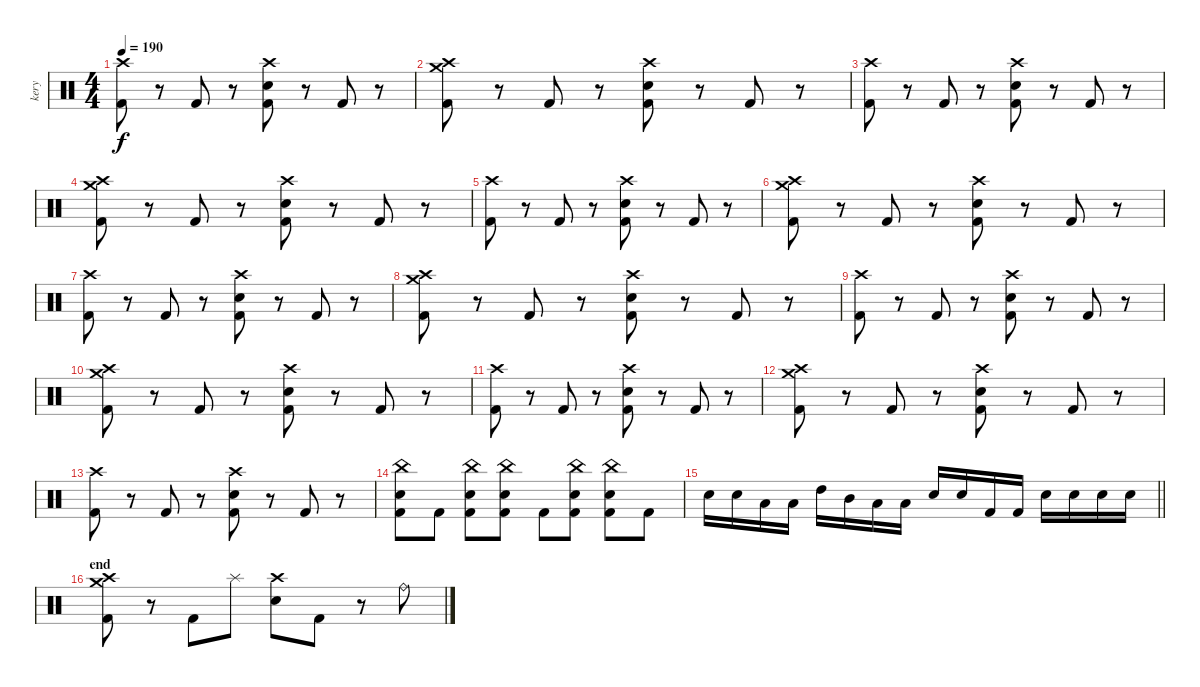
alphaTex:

\track ("kery" "kery") {instrument percussion}
\staff {score}
\articulation defaults
\ts (4 4)
\tempo 190
\clef neutral
\ks c
("Crash high (hit)" "Kick (hit) 2").8{dy f} r.8 "Kick (hit) 2".8 r.8 ("Crash high (hit)" "Electric Snare (hit)" "Kick (hit) 2").8 r.8 "Kick (hit) 2".8 r.8 |
("Crash high (hit)" "Crash medium (hit)" "Kick (hit) 2").8 r.8 "Kick (hit) 2".8 r.8 ("Crash high (hit)" "Electric Snare (hit)" "Kick (hit) 2").8 r.8 "Kick (hit) 2".8 r.8 |
("Crash high (hit)" "Kick (hit) 2").8 r.8 "Kick (hit) 2".8 r.8 ("Crash high (hit)" "Electric Snare (hit)" "Kick (hit) 2").8 r.8 "Kick (hit) 2".8 r.8 |
("Crash high (hit)" "Crash medium (hit)" "Kick (hit) 2").8 r.8 "Kick (hit) 2".8 r.8 ("Crash high (hit)" "Electric Snare (hit)" "Kick (hit) 2").8 r.8 "Kick (hit) 2".8 r.8 |
("Crash high (hit)" "Kick (hit) 2").8 r.8 "Kick (hit) 2".8 r.8 ("Crash high (hit)" "Electric Snare (hit)" "Kick (hit) 2").8 r.8 "Kick (hit) 2".8 r.8 |
("Crash high (hit)" "Crash medium (hit)" "Kick (hit) 2").8 r.8 "Kick (hit) 2".8 r.8 ("Crash high (hit)" "Electric Snare (hit)" "Kick (hit) 2").8 r.8 "Kick (hit) 2".8 r.8 |
("Crash high (hit)" "Kick (hit) 2").8 r.8 "Kick (hit) 2".8 r.8 ("Crash high (hit)" "Electric Snare (hit)" "Kick (hit) 2").8 r.8 "Kick (hit) 2".8 r.8 |
("Crash high (hit)" "Crash medium (hit)" "Kick (hit) 2").8 r.8 "Kick (hit) 2".8 r.8 ("Crash high (hit)" "Electric Snare (hit)" "Kick (hit) 2").8 r.8 "Kick (hit) 2".8 r.8 |
("Crash high (hit)" "Kick (hit) 2").8 r.8 "Kick (hit) 2".8 r.8 ("Crash high (hit)" "Electric Snare (hit)" "Kick (hit) 2").8 r.8 "Kick (hit) 2".8 r.8 |
("Crash high (hit)" "Crash medium (hit)" "Kick (hit) 2").8 r.8 "Kick (hit) 2".8 r.8 ("Crash high (hit)" "Electric Snare (hit)" "Kick (hit) 2").8 r.8 "Kick (hit) 2".8 r.8 |
("Crash high (hit)" "Kick (hit) 2").8 r.8 "Kick (hit) 2".8 r.8 ("Crash high (hit)" "Electric Snare (hit)" "Kick (hit) 2").8 r.8 "Kick (hit) 2".8 r.8 |
("Crash high (hit)" "Crash medium (hit)" "Kick (hit) 2").8 r.8 "Kick (hit) 2".8 r.8 ("Crash high (hit)" "Electric Snare (hit)" "Kick (hit) 2").8 r.8 "Kick (hit) 2".8 r.8 |
("Crash high (hit)" "Kick (hit) 2").8 r.8 "Kick (hit) 2".8 r.8 ("Crash high (hit)" "Electric Snare (hit)" "Kick (hit) 2").8 r.8 "Kick (hit) 2".8 r.8 |
("Kick (hit) 2" "Electric Snare (hit)" "China (hit)").8 "Kick (hit) 2".8 ("Kick (hit) 2" "Electric Snare (hit)" "China (hit)").8 ("Kick (hit) 2" "Electric Snare (hit)" "China (hit)").8 "Kick (hit) 2".8 ("Kick (hit) 2" "Electric Snare (hit)" "China (hit)").8 ("Kick (hit) 2" "Electric Snare (hit)" "China (hit)").8 "Kick (hit) 2".8 |
\barLineRight lightlight "Electric Snare (hit)".16 "Electric Snare (hit)".16 "Low Tom (hit)".16 "Low Tom (hit)".16 "High Tom (hit)".16 "Mid Tom (hit)".16 "Low Tom (hit)".16 "Low Tom (hit)".16 "Electric Snare (hit)".16 "Electric Snare (hit)".16 "Kick (hit) 2".16 "Kick (hit) 2".16 "Electric Snare (hit)".16 "Electric Snare (hit)".16 "Electric Snare (hit)".16 "Electric Snare (hit)".16
|
\section ("" "end")
("Crash high (hit)" "Crash medium (hit)" "Kick (hit) 2").8 r.8 "Kick (hit) 2".8 "Splash (hit)".8 ("Crash high (hit)" "Electric Snare (hit)").8 "Kick (hit) 2".8 r.8 "Ride (bell)".8
